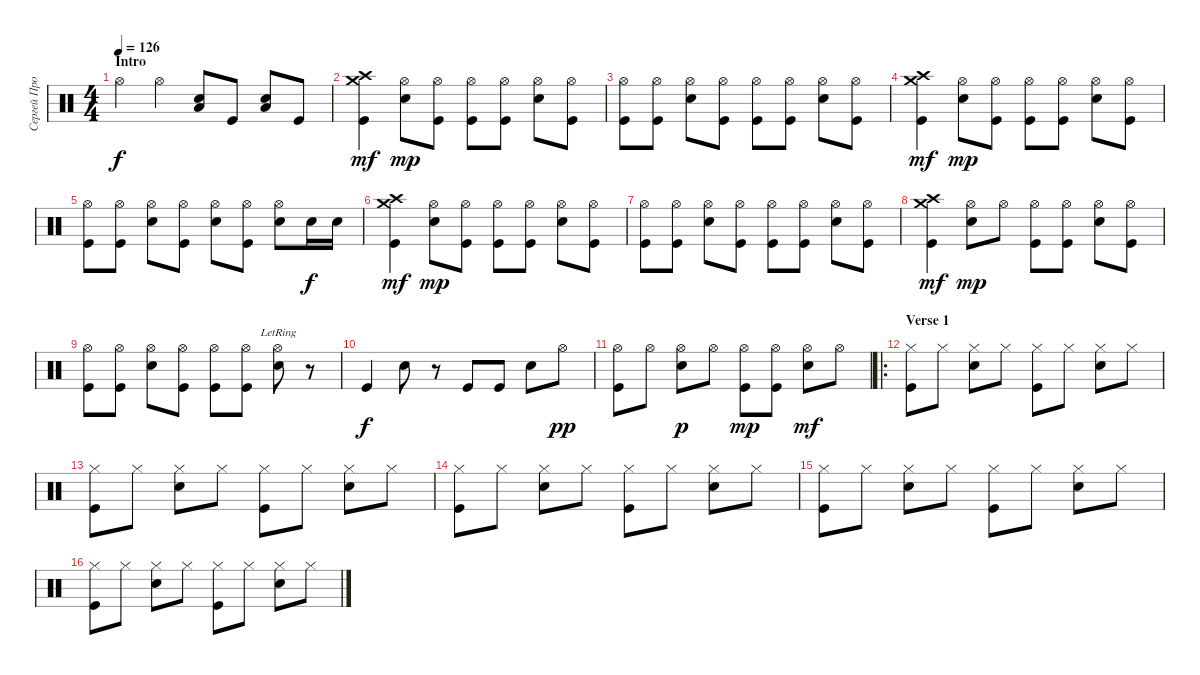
\track ("Сергей Прокофьев (Барабаны)" "Сергей Про") {instrument percussion}
\staff {score}
\articulation defaults
\ts (4 4)
\section ("" "Intro")
\tempo 126
\clef neutral
\ks c "Hi-Hat (open)".4{dy f} "Hi-Hat (open)".4
("Electric Snare (hit)" "Low Floor Tom (hit)").8 "Kick (hit)".8 ("Electric Snare (hit)" "Low Floor Tom (hit)").8 "Kick (hit)".8 |
("Crash medium (hit)" "Crash high (hit)" "Kick (hit)").4{dy mf} ("Hi-Hat (open)" "Electric Snare (hit)").8{dy mp} ("Hi-Hat (open)" "Kick (hit)").8 ("Hi-Hat (open)" "Kick (hit)").8 ("Hi-Hat (open)" "Kick (hit)").8 ("Hi-Hat (open)" "Electric Snare (hit)").8 ("Hi-Hat (open)" "Kick (hit)").8 |
("Hi-Hat (open)" "Kick (hit)").8 ("Hi-Hat (open)" "Kick (hit)").8 ("Hi-Hat (open)" "Electric Snare (hit)").8 ("Hi-Hat (open)" "Kick (hit)").8 ("Hi-Hat (open)" "Kick (hit)").8 ("Hi-Hat (open)" "Kick (hit)").8 ("Hi-Hat (open)" "Electric Snare (hit)").8 ("Hi-Hat (open)" "Kick (hit)").8 |
("Crash medium (hit)" "Crash high (hit)" "Kick (hit)").4{dy mf} ("Hi-Hat (open)" "Electric Snare (hit)").8{dy mp} ("Hi-Hat (open)" "Kick (hit)").8 ("Hi-Hat (open)" "Kick (hit)").8 ("Hi-Hat (open)" "Kick (hit)").8 ("Hi-Hat (open)" "Electric Snare (hit)").8 ("Hi-Hat (open)" "Kick (hit)").8 |
("Hi-Hat (open)" "Kick (hit)").8 ("Hi-Hat (open)" "Kick (hit)").8 ("Hi-Hat (open)" "Electric Snare (hit)").8 ("Hi-Hat (open)" "Kick (hit)").8 ("Hi-Hat (open)" "Electric Snare (hit)").8 ("Hi-Hat (open)" "Kick (hit)").8 ("Hi-Hat (open)" "Electric Snare (hit)").8 "Electric Snare (hit)".16{dy f} "Electric Snare (hit)".16 |
("Crash medium (hit)" "Crash high (hit)" "Kick (hit)").4{dy mf} ("Hi-Hat (open)" "Electric Snare (hit)").8{dy mp} ("Hi-Hat (open)" "Kick (hit)").8 ("Hi-Hat (open)" "Kick (hit)").8 ("Hi-Hat (open)" "Kick (hit)").8 ("Hi-Hat (open)" "Electric Snare (hit)").8 ("Hi-Hat (open)" "Kick (hit)").8 |
("Hi-Hat (open)" "Kick (hit)").8 ("Hi-Hat (open)" "Kick (hit)").8 ("Hi-Hat (open)" "Electric Snare (hit)").8 ("Hi-Hat (open)" "Kick (hit)").8 ("Hi-Hat (open)" "Kick (hit)").8 ("Hi-Hat (open)" "Kick (hit)").8 ("Hi-Hat (open)" "Electric Snare (hit)").8 ("Hi-Hat (open)" "Kick (hit)").8 |
("Crash medium (hit)" "Crash high (hit)" "Kick (hit)").4{dy mf} ("Hi-Hat (open)" "Electric Snare (hit)").8{dy mp} "Hi-Hat (open)".8 ("Hi-Hat (open)" "Kick (hit)").8 ("Hi-Hat (open)" "Kick (hit)").8 ("Hi-Hat (open)" "Electric Snare (hit)").8 ("Hi-Hat (open)" "Kick (hit)").8 |
("Hi-Hat (open)" "Kick (hit)").8 ("Hi-Hat (open)" "Kick (hit)").8 ("Hi-Hat (open)" "Electric Snare (hit)").8 ("Hi-Hat (open)" "Kick (hit)").8 ("Hi-Hat (open)" "Kick (hit)").8 ("Hi-Hat (open)" "Kick (hit)").8 ("Hi-Hat (open)"{lr} "Electric Snare (hit)").8 r.8 |
"Kick (hit)".4{dy f} "Electric Snare (hit)".8 r.8 "Kick (hit)".8 "Kick (hit)".8 "Electric Snare (hit)".8 "Hi-Hat (open)".8{dy pp} |
("Hi-Hat (open)" "Kick (hit)").8 "Hi-Hat (open)".8 ("Hi-Hat (open)" "Electric Snare (hit)").8{dy p} "Hi-Hat (open)".8 ("Hi-Hat (open)" "Kick (hit)").8{dy mp} ("Hi-Hat (open)" "Kick (hit)").8 ("Hi-Hat (open)" "Electric Snare (hit)").8{dy mf} "Hi-Hat (open)".8 |
\ro
\section ("" "Verse 1")
("Hi-Hat (closed)" "Kick (hit)").8 "Hi-Hat (closed)".8 ("Hi-Hat (closed)" "Electric Snare (hit)").8 "Hi-Hat (closed)".8 ("Hi-Hat (closed)" "Kick (hit)").8 "Hi-Hat (closed)".8 ("Hi-Hat (closed)" "Electric Snare (hit)").8 "Hi-Hat (closed)".8 |
("Hi-Hat (closed)" "Kick (hit)").8 "Hi-Hat (closed)".8 ("Hi-Hat (closed)" "Electric Snare (hit)").8 "Hi-Hat (closed)".8 ("Hi-Hat (closed)" "Kick (hit)").8 "Hi-Hat (closed)".8 ("Hi-Hat (closed)" "Electric Snare (hit)").8 "Hi-Hat (closed)".8 |
("Hi-Hat (closed)" "Kick (hit)").8 "Hi-Hat (closed)".8 ("Hi-Hat (closed)" "Electric Snare (hit)").8 "Hi-Hat (closed)".8 ("Hi-Hat (closed)" "Kick (hit)").8 "Hi-Hat (closed)".8 ("Hi-Hat (closed)" "Electric Snare (hit)").8 "Hi-Hat (closed)".8 |
("Hi-Hat (closed)" "Kick (hit)").8 "Hi-Hat (closed)".8 ("Hi-Hat (closed)" "Electric Snare (hit)").8 "Hi-Hat (closed)".8 ("Hi-Hat (closed)" "Kick (hit)").8 "Hi-Hat (closed)".8 ("Hi-Hat (closed)" "Electric Snare (hit)").8 "Hi-Hat (closed)".8 |
("Hi-Hat (closed)" "Kick (hit)").8 "Hi-Hat (closed)".8 ("Hi-Hat (closed)" "Electric Snare (hit)").8 "Hi-Hat (closed)".8 ("Hi-Hat (closed)" "Kick (hit)").8 "Hi-Hat (closed)".8 ("Hi-Hat (closed)" "Electric Snare (hit)").8 "Hi-Hat (closed)".8
